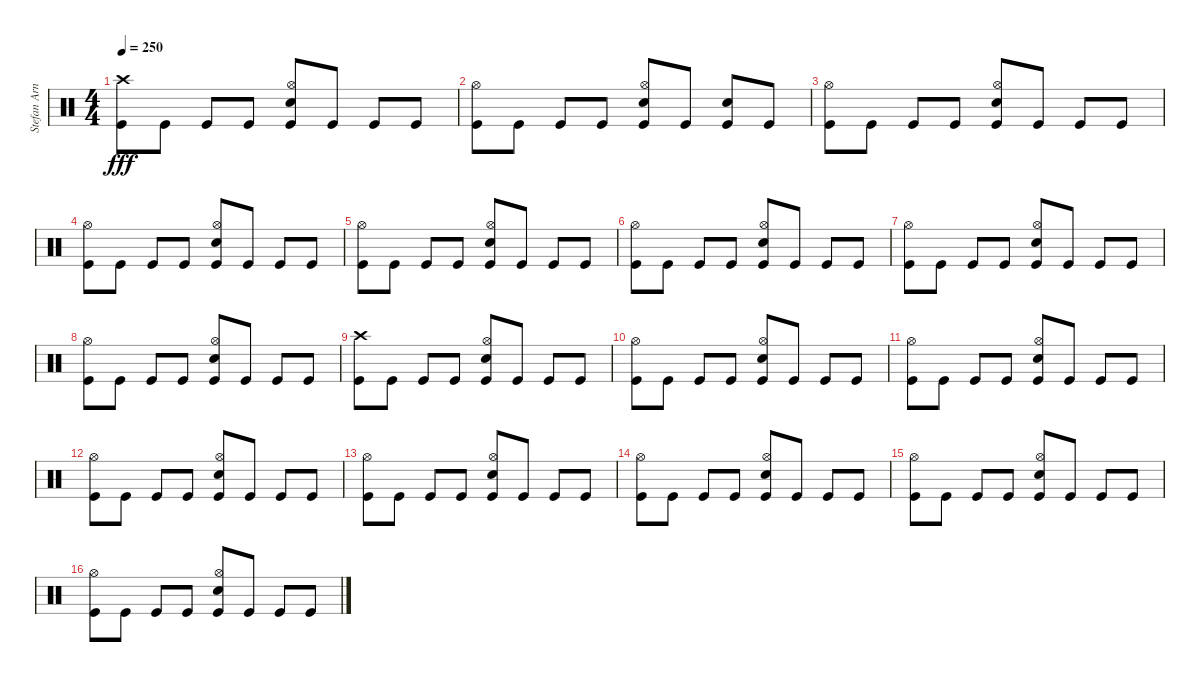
\track ("Stefan Arnold (Batería)" "Stefan Arn") {instrument percussion}
\staff {score}
\articulation defaults
\ts (4 4)
\tempo 250
\clef neutral
\ks c
("Crash high (hit)" "Kick (hit)").8{dy fff} "Kick (hit)".8 "Kick (hit)".8 "Kick (hit)".8 ("Hi-Hat (open)" "Electric Snare (hit)" "Kick (hit)").8 "Kick (hit)".8 "Kick (hit)".8 "Kick (hit)".8 |
("Hi-Hat (open)" "Kick (hit)").8 "Kick (hit)".8 "Kick (hit)".8 "Kick (hit)".8 ("Hi-Hat (open)" "Electric Snare (hit)" "Kick (hit)").8 "Kick (hit)".8 ("Electric Snare (hit)" "Kick (hit)").8 "Kick (hit)".8 |
("Hi-Hat (open)" "Kick (hit)").8 "Kick (hit)".8 "Kick (hit)".8 "Kick (hit)".8 ("Hi-Hat (open)" "Electric Snare (hit)" "Kick (hit)").8 "Kick (hit)".8 "Kick (hit)".8 "Kick (hit)".8 |
("Hi-Hat (open)" "Kick (hit)").8 "Kick (hit)".8 "Kick (hit)".8 "Kick (hit)".8 ("Hi-Hat (open)" "Electric Snare (hit)" "Kick (hit)").8 "Kick (hit)".8 "Kick (hit)".8 "Kick (hit)".8 |
("Hi-Hat (open)" "Kick (hit)").8 "Kick (hit)".8 "Kick (hit)".8 "Kick (hit)".8 ("Hi-Hat (open)" "Electric Snare (hit)" "Kick (hit)").8 "Kick (hit)".8 "Kick (hit)".8 "Kick (hit)".8 |
("Hi-Hat (open)" "Kick (hit)").8 "Kick (hit)".8 "Kick (hit)".8 "Kick (hit)".8 ("Hi-Hat (open)" "Electric Snare (hit)" "Kick (hit)").8 "Kick (hit)".8 "Kick (hit)".8 "Kick (hit)".8 |
("Hi-Hat (open)" "Kick (hit)").8 "Kick (hit)".8 "Kick (hit)".8 "Kick (hit)".8 ("Hi-Hat (open)" "Electric Snare (hit)" "Kick (hit)").8 "Kick (hit)".8 "Kick (hit)".8 "Kick (hit)".8 |
("Hi-Hat (open)" "Kick (hit)").8 "Kick (hit)".8 "Kick (hit)".8 "Kick (hit)".8 ("Hi-Hat (open)" "Electric Snare (hit)" "Kick (hit)").8 "Kick (hit)".8 "Kick (hit)".8 "Kick (hit)".8 |
("Crash high (hit)" "Kick (hit)").8 "Kick (hit)".8 "Kick (hit)".8 "Kick (hit)".8 ("Hi-Hat (open)" "Electric Snare (hit)" "Kick (hit)").8 "Kick (hit)".8 "Kick (hit)".8 "Kick (hit)".8 |
("Hi-Hat (open)" "Kick (hit)").8 "Kick (hit)".8 "Kick (hit)".8 "Kick (hit)".8 ("Hi-Hat (open)" "Electric Snare (hit)" "Kick (hit)").8 "Kick (hit)".8 "Kick (hit)".8 "Kick (hit)".8 |
("Hi-Hat (open)" "Kick (hit)").8 "Kick (hit)".8 "Kick (hit)".8 "Kick (hit)".8 ("Hi-Hat (open)" "Electric Snare (hit)" "Kick (hit)").8 "Kick (hit)".8 "Kick (hit)".8 "Kick (hit)".8 |
("Hi-Hat (open)" "Kick (hit)").8 "Kick (hit)".8 "Kick (hit)".8 "Kick (hit)".8 ("Hi-Hat (open)" "Electric Snare (hit)" "Kick (hit)").8 "Kick (hit)".8 "Kick (hit)".8 "Kick (hit)".8 |
("Hi-Hat (open)" "Kick (hit)").8 "Kick (hit)".8 "Kick (hit)".8 "Kick (hit)".8 ("Hi-Hat (open)" "Electric Snare (hit)" "Kick (hit)").8 "Kick (hit)".8 "Kick (hit)".8 "Kick (hit)".8 |
("Hi-Hat (open)" "Kick (hit)").8 "Kick (hit)".8 "Kick (hit)".8 "Kick (hit)".8 ("Hi-Hat (open)" "Electric Snare (hit)" "Kick (hit)").8 "Kick (hit)".8 "Kick (hit)".8 "Kick (hit)".8 |
("Hi-Hat (open)" "Kick (hit)").8 "Kick (hit)".8 "Kick (hit)".8 "Kick (hit)".8 ("Hi-Hat (open)" "Electric Snare (hit)" "Kick (hit)").8 "Kick (hit)".8 "Kick (hit)".8 "Kick (hit)".8 |
("Hi-Hat (open)" "Kick (hit)").8 "Kick (hit)".8 "Kick (hit)".8 "Kick (hit)".8 ("Hi-Hat (open)" "Electric Snare (hit)" "Kick (hit)").8 "Kick (hit)".8 "Kick (hit)".8 "Kick (hit)".8
